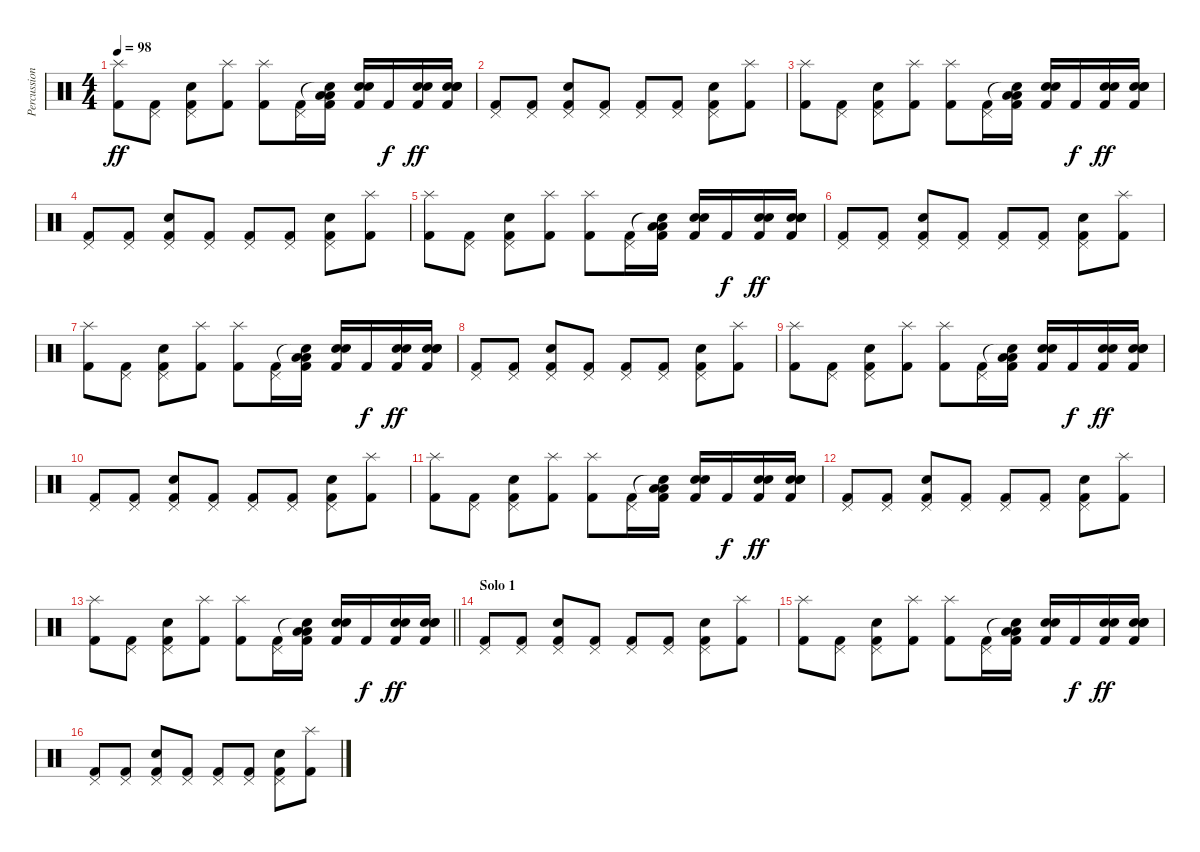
\track ("Percussion" "Percussion") {instrument percussion}
\staff {score}
\articulation defaults
\ts (4 4)
\tempo 98
\clef neutral
\ks c
("Splash (hit)" "Kick (hit) 2").8{dy ff} ("Pedal Hi-Hat (hit)" "Kick (hit) 2").8 ("Pedal Hi-Hat (hit)" "Snare (hit) 2" "Kick (hit) 2").8 ("Splash (hit)" "Kick (hit) 2").8 ("Splash (hit)" "Kick (hit) 2").8 ("Pedal Hi-Hat (hit)" "Kick (hit) 2").16 ("Low Floor Tom (hit)" "Snare (hit)"{t} "Low Floor Tom (hit)" "Kick (hit) 2").16 ("Snare (hit) 2" "Snare (hit) 2" "Kick (hit) 2").16 "Kick (hit) 2".16{dy f} ("Snare (hit) 2" "Snare (hit) 2" "Kick (hit) 2").16{dy ff} ("Snare (hit) 2" "Snare (hit) 2" "Snare (hit) 2" "Kick (hit) 2").16 |
("Pedal Hi-Hat (hit)" "Kick (hit) 2").8 ("Pedal Hi-Hat (hit)" "Kick (hit) 2").8 ("Pedal Hi-Hat (hit)" "Snare (hit) 2" "Kick (hit) 2").8 ("Pedal Hi-Hat (hit)" "Kick (hit) 2").8 ("Pedal Hi-Hat (hit)" "Kick (hit) 2").8 ("Pedal Hi-Hat (hit)" "Kick (hit) 2").8 ("Pedal Hi-Hat (hit)" "Snare (hit) 2" "Kick (hit) 2").8 ("Splash (hit)" "Kick (hit) 2").8 |
("Splash (hit)" "Kick (hit) 2").8 ("Pedal Hi-Hat (hit)" "Kick (hit) 2").8 ("Pedal Hi-Hat (hit)" "Snare (hit) 2" "Kick (hit) 2").8 ("Splash (hit)" "Kick (hit) 2").8 ("Splash (hit)" "Kick (hit) 2").8 ("Pedal Hi-Hat (hit)" "Kick (hit) 2").16 ("Low Floor Tom (hit)" "Snare (hit)"{t} "Low Floor Tom (hit)" "Kick (hit) 2").16 ("Snare (hit) 2" "Snare (hit) 2" "Kick (hit) 2").16 "Kick (hit) 2".16{dy f} ("Snare (hit) 2" "Snare (hit) 2" "Kick (hit) 2").16{dy ff} ("Snare (hit) 2" "Snare (hit) 2" "Snare (hit) 2" "Kick (hit) 2").16 |
("Pedal Hi-Hat (hit)" "Kick (hit) 2").8 ("Pedal Hi-Hat (hit)" "Kick (hit) 2").8 ("Pedal Hi-Hat (hit)" "Snare (hit) 2" "Kick (hit) 2").8 ("Pedal Hi-Hat (hit)" "Kick (hit) 2").8 ("Pedal Hi-Hat (hit)" "Kick (hit) 2").8 ("Pedal Hi-Hat (hit)" "Kick (hit) 2").8 ("Pedal Hi-Hat (hit)" "Snare (hit) 2" "Kick (hit) 2").8 ("Splash (hit)" "Kick (hit) 2").8 |
("Splash (hit)" "Kick (hit) 2").8 ("Pedal Hi-Hat (hit)" "Kick (hit) 2").8 ("Pedal Hi-Hat (hit)" "Snare (hit) 2" "Kick (hit) 2").8 ("Splash (hit)" "Kick (hit) 2").8 ("Splash (hit)" "Kick (hit) 2").8 ("Pedal Hi-Hat (hit)" "Kick (hit) 2").16 ("Low Floor Tom (hit)" "Snare (hit)"{t} "Low Floor Tom (hit)" "Kick (hit) 2").16 ("Snare (hit) 2" "Snare (hit) 2" "Kick (hit) 2").16 "Kick (hit) 2".16{dy f} ("Snare (hit) 2" "Snare (hit) 2" "Kick (hit) 2").16{dy ff} ("Snare (hit) 2" "Snare (hit) 2" "Snare (hit) 2" "Kick (hit) 2").16 |
("Pedal Hi-Hat (hit)" "Kick (hit) 2").8 ("Pedal Hi-Hat (hit)" "Kick (hit) 2").8 ("Pedal Hi-Hat (hit)" "Snare (hit) 2" "Kick (hit) 2").8 ("Pedal Hi-Hat (hit)" "Kick (hit) 2").8 ("Pedal Hi-Hat (hit)" "Kick (hit) 2").8 ("Pedal Hi-Hat (hit)" "Kick (hit) 2").8 ("Pedal Hi-Hat (hit)" "Snare (hit) 2" "Kick (hit) 2").8 ("Splash (hit)" "Kick (hit) 2").8 |
("Splash (hit)" "Kick (hit) 2").8 ("Pedal Hi-Hat (hit)" "Kick (hit) 2").8 ("Pedal Hi-Hat (hit)" "Snare (hit) 2" "Kick (hit) 2").8 ("Splash (hit)" "Kick (hit) 2").8 ("Splash (hit)" "Kick (hit) 2").8 ("Pedal Hi-Hat (hit)" "Kick (hit) 2").16 ("Low Floor Tom (hit)" "Snare (hit)"{t} "Low Floor Tom (hit)" "Kick (hit) 2").16 ("Snare (hit) 2" "Snare (hit) 2" "Kick (hit) 2").16 "Kick (hit) 2".16{dy f} ("Snare (hit) 2" "Snare (hit) 2" "Kick (hit) 2").16{dy ff} ("Snare (hit) 2" "Snare (hit) 2" "Snare (hit) 2" "Kick (hit) 2").16 |
("Pedal Hi-Hat (hit)" "Kick (hit) 2").8 ("Pedal Hi-Hat (hit)" "Kick (hit) 2").8 ("Pedal Hi-Hat (hit)" "Snare (hit) 2" "Kick (hit) 2").8 ("Pedal Hi-Hat (hit)" "Kick (hit) 2").8 ("Pedal Hi-Hat (hit)" "Kick (hit) 2").8 ("Pedal Hi-Hat (hit)" "Kick (hit) 2").8 ("Pedal Hi-Hat (hit)" "Snare (hit) 2" "Kick (hit) 2").8 ("Splash (hit)" "Kick (hit) 2").8 |
("Splash (hit)" "Kick (hit) 2").8 ("Pedal Hi-Hat (hit)" "Kick (hit) 2").8 ("Pedal Hi-Hat (hit)" "Snare (hit) 2" "Kick (hit) 2").8 ("Splash (hit)" "Kick (hit) 2").8 ("Splash (hit)" "Kick (hit) 2").8 ("Pedal Hi-Hat (hit)" "Kick (hit) 2").16 ("Low Floor Tom (hit)" "Snare (hit)"{t} "Low Floor Tom (hit)" "Kick (hit) 2").16 ("Snare (hit) 2" "Snare (hit) 2" "Kick (hit) 2").16 "Kick (hit) 2".16{dy f} ("Snare (hit) 2" "Snare (hit) 2" "Kick (hit) 2").16{dy ff} ("Snare (hit) 2" "Snare (hit) 2" "Snare (hit) 2" "Kick (hit) 2").16 |
("Pedal Hi-Hat (hit)" "Kick (hit) 2").8 ("Pedal Hi-Hat (hit)" "Kick (hit) 2").8 ("Pedal Hi-Hat (hit)" "Snare (hit) 2" "Kick (hit) 2").8 ("Pedal Hi-Hat (hit)" "Kick (hit) 2").8 ("Pedal Hi-Hat (hit)" "Kick (hit) 2").8 ("Pedal Hi-Hat (hit)" "Kick (hit) 2").8 ("Pedal Hi-Hat (hit)" "Snare (hit) 2" "Kick (hit) 2").8 ("Splash (hit)" "Kick (hit) 2").8 |
("Splash (hit)" "Kick (hit) 2").8 ("Pedal Hi-Hat (hit)" "Kick (hit) 2").8 ("Pedal Hi-Hat (hit)" "Snare (hit) 2" "Kick (hit) 2").8 ("Splash (hit)" "Kick (hit) 2").8 ("Splash (hit)" "Kick (hit) 2").8 ("Pedal Hi-Hat (hit)" "Kick (hit) 2").16 ("Low Floor Tom (hit)" "Snare (hit)"{t} "Low Floor Tom (hit)" "Kick (hit) 2").16 ("Snare (hit) 2" "Snare (hit) 2" "Kick (hit) 2").16 "Kick (hit) 2".16{dy f} ("Snare (hit) 2" "Snare (hit) 2" "Kick (hit) 2").16{dy ff} ("Snare (hit) 2" "Snare (hit) 2" "Snare (hit) 2" "Kick (hit) 2").16 |
("Pedal Hi-Hat (hit)" "Kick (hit) 2").8 ("Pedal Hi-Hat (hit)" "Kick (hit) 2").8 ("Pedal Hi-Hat (hit)" "Snare (hit) 2" "Kick (hit) 2").8 ("Pedal Hi-Hat (hit)" "Kick (hit) 2").8 ("Pedal Hi-Hat (hit)" "Kick (hit) 2").8 ("Pedal Hi-Hat (hit)" "Kick (hit) 2").8 ("Pedal Hi-Hat (hit)" "Snare (hit) 2" "Kick (hit) 2").8 ("Splash (hit)" "Kick (hit) 2").8 |
\barLineRight lightlight
("Splash (hit)" "Kick (hit) 2").8 ("Pedal Hi-Hat (hit)" "Kick (hit) 2").8 ("Pedal Hi-Hat (hit)" "Snare (hit) 2" "Kick (hit) 2").8 ("Splash (hit)" "Kick (hit) 2").8 ("Splash (hit)" "Kick (hit) 2").8 ("Pedal Hi-Hat (hit)" "Kick (hit) 2").16 ("Low Floor Tom (hit)" "Snare (hit)"{t} "Low Floor Tom (hit)" "Kick (hit) 2").16 ("Snare (hit) 2" "Snare (hit) 2" "Kick (hit) 2").16 "Kick (hit) 2".16{dy f} ("Snare (hit) 2" "Snare (hit) 2" "Kick (hit) 2").16{dy ff} ("Snare (hit) 2" "Snare (hit) 2" "Snare (hit) 2" "Kick (hit) 2").16 |
\section ("" "Solo 1")
("Pedal Hi-Hat (hit)" "Kick (hit) 2").8 ("Pedal Hi-Hat (hit)" "Kick (hit) 2").8 ("Pedal Hi-Hat (hit)" "Snare (hit) 2" "Kick (hit) 2").8 ("Pedal Hi-Hat (hit)" "Kick (hit) 2").8 ("Pedal Hi-Hat (hit)" "Kick (hit) 2").8 ("Pedal Hi-Hat (hit)" "Kick (hit) 2").8 ("Pedal Hi-Hat (hit)" "Snare (hit) 2" "Kick (hit) 2").8 ("Splash (hit)" "Kick (hit) 2").8 |
("Splash (hit)" "Kick (hit) 2").8 ("Pedal Hi-Hat (hit)" "Kick (hit) 2").8 ("Pedal Hi-Hat (hit)" "Snare (hit) 2" "Kick (hit) 2").8 ("Splash (hit)" "Kick (hit) 2").8 ("Splash (hit)" "Kick (hit) 2").8 ("Pedal Hi-Hat (hit)" "Kick (hit) 2").16 ("Low Floor Tom (hit)" "Snare (hit)"{t} "Low Floor Tom (hit)" "Kick (hit) 2").16 ("Snare (hit) 2" "Snare (hit) 2" "Kick (hit) 2").16 "Kick (hit) 2".16{dy f} ("Snare (hit) 2" "Snare (hit) 2" "Kick (hit) 2").16{dy ff} ("Snare (hit) 2" "Snare (hit) 2" "Snare (hit) 2" "Kick (hit) 2").16 |
("Pedal Hi-Hat (hit)" "Kick (hit) 2").8 ("Pedal Hi-Hat (hit)" "Kick (hit) 2").8 ("Pedal Hi-Hat (hit)" "Snare (hit) 2" "Kick (hit) 2").8 ("Pedal Hi-Hat (hit)" "Kick (hit) 2").8 ("Pedal Hi-Hat (hit)" "Kick (hit) 2").8 ("Pedal Hi-Hat (hit)" "Kick (hit) 2").8 ("Pedal Hi-Hat (hit)" "Snare (hit) 2" "Kick (hit) 2").8 ("Splash (hit)" "Kick (hit) 2").8
